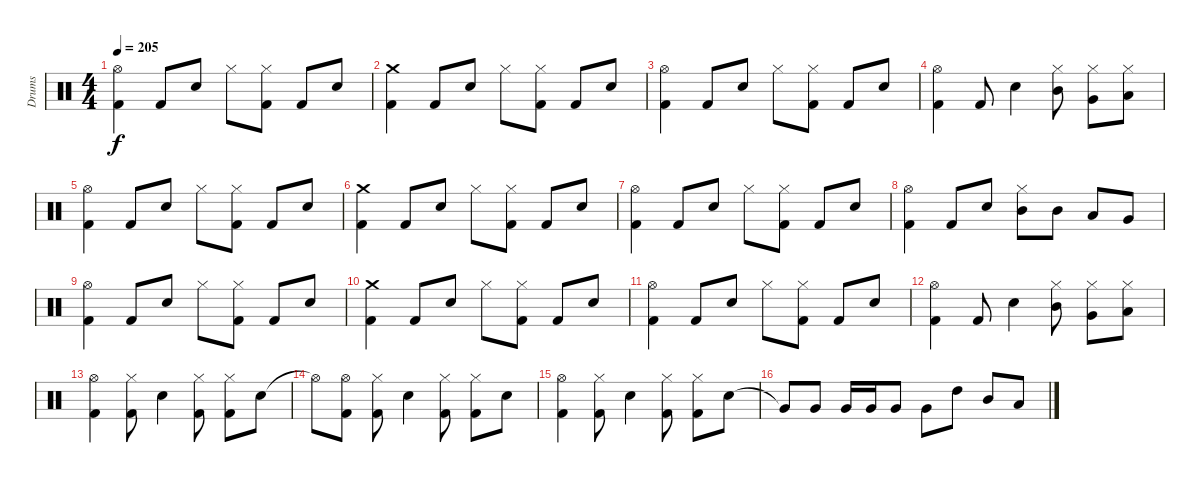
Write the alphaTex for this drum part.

\track ("Drums" "Drums") {instrument percussion}
\staff {score}
\articulation defaults
\ts (4 4)
\tempo 205
\clef neutral
\ks c
("Hi-Hat (open)" "Kick (hit) 2").4{dy f} "Kick (hit) 2".8 "Electric Snare (hit)".8 "Hi-Hat (closed)".8 ("Hi-Hat (closed)" "Kick (hit) 2").8 "Kick (hit) 2".8 "Electric Snare (hit)".8 |
("Crash medium (hit)" "Kick (hit) 2").4 "Kick (hit) 2".8 "Electric Snare (hit)".8 "Hi-Hat (closed)".8 ("Hi-Hat (closed)" "Kick (hit) 2").8 "Kick (hit) 2".8 "Electric Snare (hit)".8 |
("Hi-Hat (open)" "Kick (hit) 2").4 "Kick (hit) 2".8 "Electric Snare (hit)".8 "Hi-Hat (closed)".8 ("Hi-Hat (closed)" "Kick (hit) 2").8 "Kick (hit) 2".8 "Electric Snare (hit)".8 |
("Hi-Hat (open)" "Kick (hit) 2").4 "Kick (hit) 2".8 "Electric Snare (hit)".4 ("Hi-Hat (closed)" "Mid Tom (hit)").8 ("Hi-Hat (closed)" "Very Low Tom (hit)").8 ("Hi-Hat (closed)" "Low Tom (hit)").8 |
("Hi-Hat (open)" "Kick (hit) 2").4 "Kick (hit) 2".8 "Electric Snare (hit)".8 "Hi-Hat (closed)".8 ("Hi-Hat (closed)" "Kick (hit) 2").8 "Kick (hit) 2".8 "Electric Snare (hit)".8 |
("Crash medium (hit)" "Kick (hit) 2").4 "Kick (hit) 2".8 "Electric Snare (hit)".8 "Hi-Hat (closed)".8 ("Hi-Hat (closed)" "Kick (hit) 2").8 "Kick (hit) 2".8 "Electric Snare (hit)".8 |
("Hi-Hat (open)" "Kick (hit) 2").4 "Kick (hit) 2".8 "Electric Snare (hit)".8 "Hi-Hat (closed)".8 ("Hi-Hat (closed)" "Kick (hit) 2").8 "Kick (hit) 2".8 "Electric Snare (hit)".8 |
("Hi-Hat (open)" "Kick (hit) 2").4 "Kick (hit) 2".8 "Electric Snare (hit)".8 ("Hi-Hat (closed)" "Mid Tom (hit)").8 "Mid Tom (hit)".8 "Low Tom (hit)".8 "Very Low Tom (hit)".8 |
("Hi-Hat (open)" "Kick (hit) 2").4 "Kick (hit) 2".8 "Electric Snare (hit)".8 "Hi-Hat (closed)".8 ("Hi-Hat (closed)" "Kick (hit) 2").8 "Kick (hit) 2".8 "Electric Snare (hit)".8 |
("Crash medium (hit)" "Kick (hit) 2").4 "Kick (hit) 2".8 "Electric Snare (hit)".8 "Hi-Hat (closed)".8 ("Hi-Hat (closed)" "Kick (hit) 2").8 "Kick (hit) 2".8 "Electric Snare (hit)".8 |
("Hi-Hat (open)" "Kick (hit) 2").4 "Kick (hit) 2".8 "Electric Snare (hit)".8 "Hi-Hat (closed)".8 ("Hi-Hat (closed)" "Kick (hit) 2").8 "Kick (hit) 2".8 "Electric Snare (hit)".8 |
("Hi-Hat (open)" "Kick (hit) 2").4 "Kick (hit) 2".8 "Electric Snare (hit)".4 ("Hi-Hat (closed)" "Mid Tom (hit)").8 ("Hi-Hat (closed)" "Very Low Tom (hit)").8 ("Hi-Hat (closed)" "Low Tom (hit)").8 |
("Hi-Hat (open)" "Kick (hit) 2").4 ("Hi-Hat (closed)" "Kick (hit) 2").8 "Electric Snare (hit)".4 ("Hi-Hat (closed)" "Kick (hit) 2").8 ("Hi-Hat (closed)" "Kick (hit) 2").8 "Electric Snare (hit)".8 |
"Hi-Hat (open)"{t}.8 ("Hi-Hat (open)" "Kick (hit) 2").8 ("Hi-Hat (closed)" "Kick (hit) 2").8 "Electric Snare (hit)".4 ("Hi-Hat (closed)" "Kick (hit) 2").8 ("Hi-Hat (closed)" "Kick (hit) 2").8 "Electric Snare (hit)".8 |
("Hi-Hat (open)" "Kick (hit) 2").4 ("Hi-Hat (closed)" "Kick (hit) 2").8 "Electric Snare (hit)".4 ("Hi-Hat (closed)" "Kick (hit) 2").8 ("Hi-Hat (closed)" "Kick (hit) 2").8 "Electric Snare (hit)".8 |
"Very Low Tom (hit)"{t}.8 "Very Low Tom (hit)".8 "Very Low Tom (hit)".16 "Very Low Tom (hit)".16 "Very Low Tom (hit)".8 "Very Low Tom (hit)".8 "High Tom (hit)".8 "Mid Tom (hit)".8 "Low Tom (hit)".8
